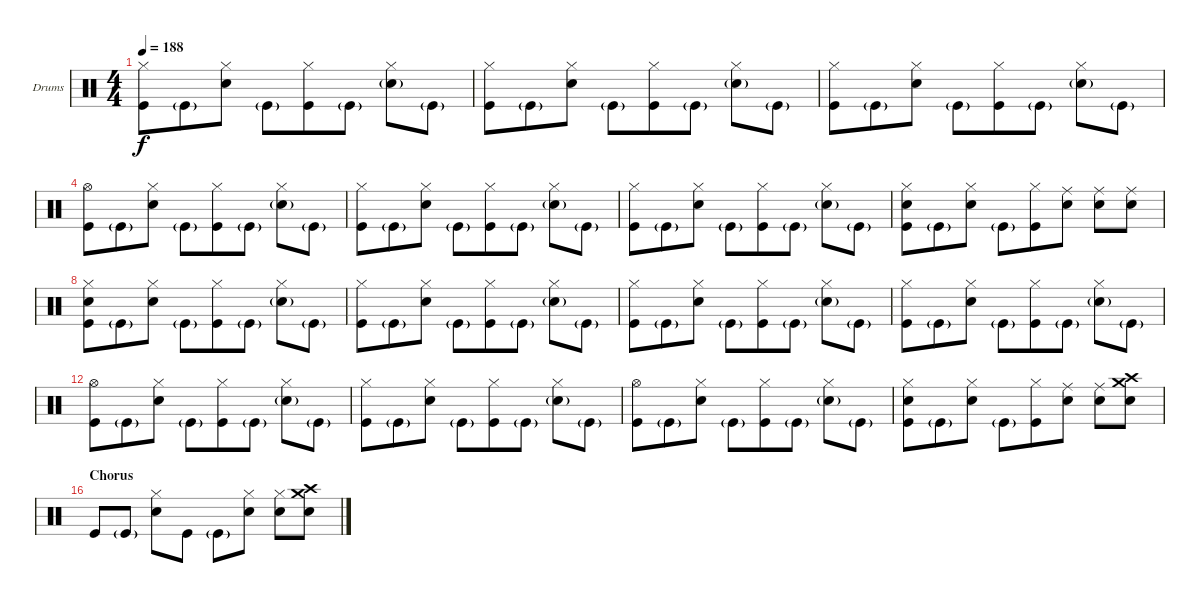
\bracketExtendMode nobrackets
\firstSystemTrackNameOrientation horizontal
\otherSystemsTrackNameOrientation horizontal
\defaultBarNumberDisplay FirstOfSystem
\track ("Drumkit" "Drums") {instrument percussion}
\staff {score}
\articulation defaults
\ts (4 4)
\tempo 188
\clef neutral
\ks c
("Kick (hit)" "Hi-Hat (closed)").8{dy f beam merge} "Kick (hit)"{g}.8{beam merge} ("Snare (hit) 2" "Hi-Hat (closed)").8{beam split} "Kick (hit)"{g}.8{beam merge} ("Kick (hit)" "Hi-Hat (closed)").8 "Kick (hit)"{g}.8 ("Snare (hit) 2"{g} "Hi-Hat (closed)").8 "Kick (hit)"{g}.8 |
("Kick (hit)" "Hi-Hat (closed)").8{beam merge} "Kick (hit)"{g}.8{beam merge} ("Snare (hit) 2" "Hi-Hat (closed)").8{beam split} "Kick (hit)"{g}.8{beam merge} ("Kick (hit)" "Hi-Hat (closed)").8 "Kick (hit)"{g}.8 ("Snare (hit) 2"{g} "Hi-Hat (closed)").8 "Kick (hit)"{g}.8 |
("Kick (hit)" "Hi-Hat (closed)").8{beam merge} "Kick (hit)"{g}.8{beam merge} ("Snare (hit) 2" "Hi-Hat (closed)").8{beam split} "Kick (hit)"{g}.8{beam merge} ("Kick (hit)" "Hi-Hat (closed)").8 "Kick (hit)"{g}.8 ("Snare (hit) 2"{g} "Hi-Hat (closed)").8 "Kick (hit)"{g}.8 |
("Hi-Hat (open)" "Kick (hit)").8{beam merge} "Kick (hit)"{g}.8{beam merge} ("Snare (hit) 2" "Hi-Hat (closed)").8{beam split} "Kick (hit)"{g}.8{beam merge} ("Kick (hit)" "Hi-Hat (closed)").8 "Kick (hit)"{g}.8 ("Snare (hit) 2"{g} "Hi-Hat (closed)").8 "Kick (hit)"{g}.8 |
("Kick (hit)" "Hi-Hat (closed)").8{beam merge} "Kick (hit)"{g}.8{beam merge} ("Snare (hit) 2" "Hi-Hat (closed)").8{beam split} "Kick (hit)"{g}.8{beam merge} ("Kick (hit)" "Hi-Hat (closed)").8 "Kick (hit)"{g}.8 ("Snare (hit) 2"{g} "Hi-Hat (closed)").8 "Kick (hit)"{g}.8 |
("Hi-Hat (closed)" "Kick (hit)").8{beam merge} "Kick (hit)"{g}.8{beam merge} ("Snare (hit) 2" "Hi-Hat (closed)").8{beam split} "Kick (hit)"{g}.8{beam merge} ("Kick (hit)" "Hi-Hat (closed)").8 "Kick (hit)"{g}.8 ("Snare (hit) 2"{g} "Hi-Hat (closed)").8 "Kick (hit)"{g}.8 |
("Snare (hit) 2" "Kick (hit)" "Hi-Hat (closed)").8{beam merge} "Kick (hit)"{g}.8{beam merge} ("Snare (hit) 2" "Hi-Hat (closed)").8{beam split} "Kick (hit)"{g}.8{beam merge} ("Kick (hit)" "Hi-Hat (closed)").8 ("Snare (hit) 2" "Ride (middle)").8 ("Snare (hit) 2" "Ride (middle)").8 ("Snare (hit) 2" "Ride (middle)").8 |
("Kick (hit)" "Hi-Hat (closed)" "Snare (hit) 2").8{beam merge} "Kick (hit)"{g}.8{beam merge} ("Snare (hit) 2" "Hi-Hat (closed)").8{beam split} "Kick (hit)"{g}.8{beam merge} ("Kick (hit)" "Hi-Hat (closed)").8 "Kick (hit)"{g}.8 ("Snare (hit) 2"{g} "Hi-Hat (closed)").8 "Kick (hit)"{g}.8 |
("Kick (hit)" "Hi-Hat (closed)").8{beam merge} "Kick (hit)"{g}.8{beam merge} ("Snare (hit) 2" "Hi-Hat (closed)").8{beam split} "Kick (hit)"{g}.8{beam merge} ("Kick (hit)" "Hi-Hat (closed)").8 "Kick (hit)"{g}.8 ("Snare (hit) 2"{g} "Hi-Hat (closed)").8 "Kick (hit)"{g}.8 |
("Kick (hit)" "Hi-Hat (closed)").8{beam merge} "Kick (hit)"{g}.8{beam merge} ("Snare (hit) 2" "Hi-Hat (closed)").8{beam split} "Kick (hit)"{g}.8{beam merge} ("Kick (hit)" "Hi-Hat (closed)").8 "Kick (hit)"{g}.8 ("Snare (hit) 2"{g} "Hi-Hat (closed)").8 "Kick (hit)"{g}.8 |
("Kick (hit)" "Hi-Hat (closed)").8{beam merge} "Kick (hit)"{g}.8{beam merge} ("Snare (hit) 2" "Hi-Hat (closed)").8{beam split} "Kick (hit)"{g}.8{beam merge} ("Kick (hit)" "Hi-Hat (closed)").8 "Kick (hit)"{g}.8 ("Snare (hit) 2"{g} "Hi-Hat (closed)").8 "Kick (hit)"{g}.8 |
("Hi-Hat (open)" "Kick (hit)").8{beam merge} "Kick (hit)"{g}.8{beam merge} ("Snare (hit) 2" "Hi-Hat (closed)").8{beam split} "Kick (hit)"{g}.8{beam merge} ("Kick (hit)" "Hi-Hat (closed)").8 "Kick (hit)"{g}.8 ("Snare (hit) 2"{g} "Hi-Hat (closed)").8 "Kick (hit)"{g}.8 |
("Kick (hit)" "Hi-Hat (closed)").8{beam merge} "Kick (hit)"{g}.8{beam merge} ("Snare (hit) 2" "Hi-Hat (closed)").8{beam split} "Kick (hit)"{g}.8{beam merge} ("Kick (hit)" "Hi-Hat (closed)").8 "Kick (hit)"{g}.8 ("Snare (hit) 2"{g} "Hi-Hat (closed)").8 "Kick (hit)"{g}.8 |
("Hi-Hat (open)" "Kick (hit)").8{beam merge} "Kick (hit)"{g}.8{beam merge} ("Snare (hit) 2" "Hi-Hat (closed)").8{beam split} "Kick (hit)"{g}.8{beam merge} ("Kick (hit)" "Hi-Hat (closed)").8 "Kick (hit)"{g}.8 ("Snare (hit) 2"{g} "Hi-Hat (closed)").8 "Kick (hit)"{g}.8 |
("Snare (hit) 2" "Kick (hit)" "Hi-Hat (closed)").8{beam merge} "Kick (hit)"{g}.8{beam merge} ("Snare (hit) 2" "Hi-Hat (closed)").8{beam split} "Kick (hit)"{g}.8{beam merge} ("Kick (hit)" "Hi-Hat (closed)").8 ("Snare (hit) 2" "Ride (middle)").8 ("Snare (hit) 2" "Ride (middle)").8 ("Snare (hit) 2" "Crash high (hit)" "Crash medium (hit)").8 |
\section ("" "Chorus")
"Kick (hit)".8 "Kick (hit)"{g}.8 ("Hi-Hat (closed)" "Snare (hit) 2").8 "Kick (hit)".8 "Kick (hit)"{g}.8 ("Hi-Hat (closed)" "Snare (hit) 2").8 ("Hi-Hat (closed)" "Snare (hit) 2").8 ("Crash high (hit)" "Snare (hit) 2" "Crash medium (hit)").8
